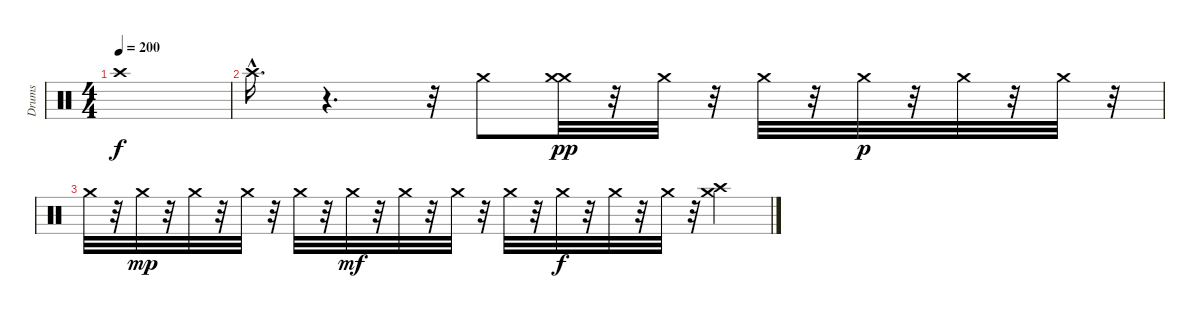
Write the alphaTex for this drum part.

\track ("Drums" "Drums") {instrument percussion}
\staff {score}
\articulation defaults
\ts (4 4)
\tempo 200
\clef neutral
\ks c "Crash high (hit)".1{dy f}
|
"Crash high (hit)"{hac}.16{d} r.4{d} r.32 "Crash medium (hit)".8 ("Crash medium (hit)" "Crash medium (hit)").32{dy pp} r.32 "Crash medium (hit)".32 r.32 "Crash medium (hit)".32 r.32 "Crash medium (hit)".32{dy p} r.32 "Crash medium (hit)".32 r.32 "Crash medium (hit)".32 r.32 |
"Crash medium (hit)".32 r.32 "Crash medium (hit)".32{dy mp} r.32 "Crash medium (hit)".32 r.32 "Crash medium (hit)".32 r.32 "Crash medium (hit)".32 r.32 "Crash medium (hit)".32{dy mf} r.32 "Crash medium (hit)".32 r.32 "Crash medium (hit)".32 r.32 "Crash medium (hit)".32 r.32 "Crash medium (hit)".32{dy f} r.32 "Crash medium (hit)".32 r.32 "Crash medium (hit)".32 r.32 ("Crash high (hit)" "Crash medium (hit)").4
